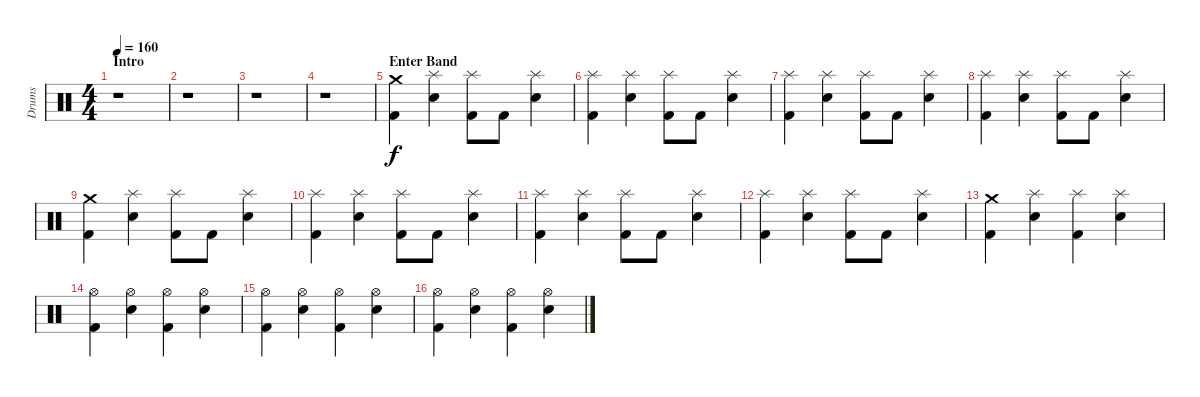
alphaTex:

\track ("Drums" "Drums") {instrument percussion}
\staff {score}
\articulation defaults
\ts (4 4)
\section ("" "Intro")
\tempo 160
\clef neutral
\ks c
r.1{dy f} |
r.1 |
r.1 |
r.1 |
\section ("" "Enter Band")
("Crash medium (hit)" "Kick (hit) 2").4 ("Splash (hit)" "Electric Snare (hit)").4 ("Splash (hit)" "Kick (hit) 2").8 "Kick (hit) 2".8 ("Splash (hit)" "Electric Snare (hit)").4 |
("Splash (hit)" "Kick (hit) 2").4 ("Splash (hit)" "Electric Snare (hit)").4 ("Splash (hit)" "Kick (hit) 2").8 "Kick (hit) 2".8 ("Splash (hit)" "Electric Snare (hit)").4 |
("Splash (hit)" "Kick (hit) 2").4 ("Splash (hit)" "Electric Snare (hit)").4 ("Splash (hit)" "Kick (hit) 2").8 "Kick (hit) 2".8 ("Splash (hit)" "Electric Snare (hit)").4 |
("Splash (hit)" "Kick (hit) 2").4 ("Splash (hit)" "Electric Snare (hit)").4 ("Splash (hit)" "Kick (hit) 2").8 "Kick (hit) 2".8 ("Splash (hit)" "Electric Snare (hit)").4 |
("Crash medium (hit)" "Kick (hit) 2").4 ("Splash (hit)" "Electric Snare (hit)").4 ("Splash (hit)" "Kick (hit) 2").8 "Kick (hit) 2".8 ("Splash (hit)" "Electric Snare (hit)").4 |
("Splash (hit)" "Kick (hit) 2").4 ("Splash (hit)" "Electric Snare (hit)").4 ("Splash (hit)" "Kick (hit) 2").8 "Kick (hit) 2".8 ("Splash (hit)" "Electric Snare (hit)").4 |
("Splash (hit)" "Kick (hit) 2").4 ("Splash (hit)" "Electric Snare (hit)").4 ("Splash (hit)" "Kick (hit) 2").8 "Kick (hit) 2".8 ("Splash (hit)" "Electric Snare (hit)").4 |
("Splash (hit)" "Kick (hit) 2").4 ("Splash (hit)" "Electric Snare (hit)").4 ("Splash (hit)" "Kick (hit) 2").8 "Kick (hit) 2".8 ("Splash (hit)" "Electric Snare (hit)").4 |
("Crash medium (hit)" "Kick (hit) 2").4 ("Splash (hit)" "Electric Snare (hit)").4 ("Splash (hit)" "Kick (hit) 2").4 ("Splash (hit)" "Electric Snare (hit)").4 |
("Hi-Hat (open)" "Kick (hit) 2").4 ("Hi-Hat (open)" "Electric Snare (hit)").4 ("Hi-Hat (open)" "Kick (hit) 2").4 ("Hi-Hat (open)" "Electric Snare (hit)").4 |
("Kick (hit) 2" "Hi-Hat (open)").4 ("Electric Snare (hit)" "Hi-Hat (open)").4 ("Kick (hit) 2" "Hi-Hat (open)").4 ("Electric Snare (hit)" "Hi-Hat (open)").4 |
("Kick (hit) 2" "Hi-Hat (open)").4 ("Electric Snare (hit)" "Hi-Hat (open)").4 ("Kick (hit) 2" "Hi-Hat (open)").4 ("Electric Snare (hit)" "Hi-Hat (open)").4
